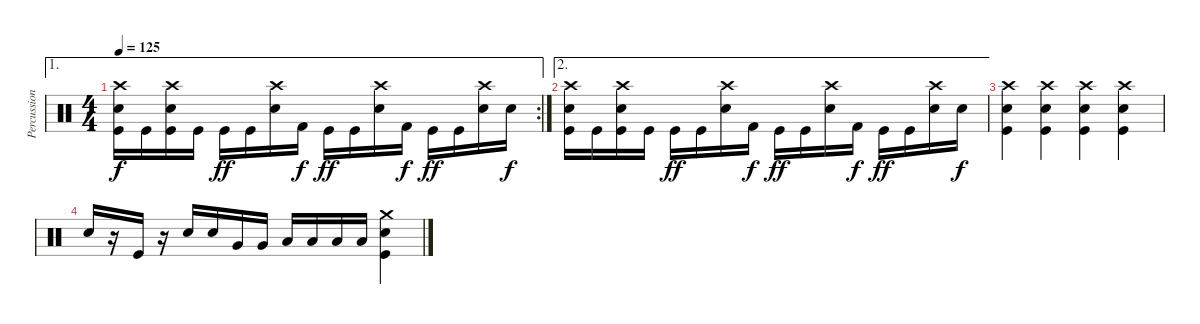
\track ("Percussion" "Percussion") {instrument percussion}
\staff {score}
\articulation defaults
\ae 1
\rc 2
\ts (4 4)
\tempo 125
\clef neutral
\ks c
("Crash high (hit)" "Snare (hit) 2" "Kick (hit)").16{dy f} "Kick (hit)".16 ("Crash high (hit)" "Snare (hit) 2" "Kick (hit)").16 "Kick (hit)".16 "Kick (hit)".16{dy ff} "Kick (hit)".16 ("Crash high (hit)" "Snare (hit) 2").16 "Kick (hit) 2".16{dy f} "Kick (hit)".16{dy ff} "Kick (hit)".16 ("Crash high (hit)" "Snare (hit) 2").16 "Kick (hit) 2".16{dy f} "Kick (hit)".16{dy ff} "Kick (hit)".16 ("Crash high (hit)" "Snare (hit) 2").16 "Snare (hit) 2".16{dy f} |
\ae 2
("Crash high (hit)" "Snare (hit) 2" "Kick (hit)").16 "Kick (hit)".16 ("Crash high (hit)" "Snare (hit) 2" "Kick (hit)").16 "Kick (hit)".16 "Kick (hit)".16{dy ff} "Kick (hit)".16 ("Crash high (hit)" "Snare (hit) 2").16 "Kick (hit) 2".16{dy f} "Kick (hit)".16{dy ff} "Kick (hit)".16 ("Crash high (hit)" "Snare (hit) 2").16 "Kick (hit) 2".16{dy f} "Kick (hit)".16{dy ff} "Kick (hit)".16 ("Crash high (hit)" "Snare (hit) 2").16 "Snare (hit) 2".16{dy f} |
("Crash high (hit)" "Snare (hit) 2" "Kick (hit)").4 ("Crash high (hit)" "Snare (hit) 2" "Kick (hit)").4 ("Crash high (hit)" "Snare (hit) 2" "Kick (hit)").4 ("Crash high (hit)" "Snare (hit) 2" "Kick (hit)").4 |
"Snare (hit) 2".16 r.16 "Kick (hit)".16 r.16 "Snare (hit) 2".16 "Snare (hit) 2".16 "Very Low Tom (hit)".16 "Very Low Tom (hit)".16 "Low Floor Tom (hit)".16 "Low Floor Tom (hit)".16 "Low Floor Tom (hit)".16 "Low Floor Tom (hit)".16 ("Crash medium (hit)" "Snare (hit) 2" "Kick (hit)").4
